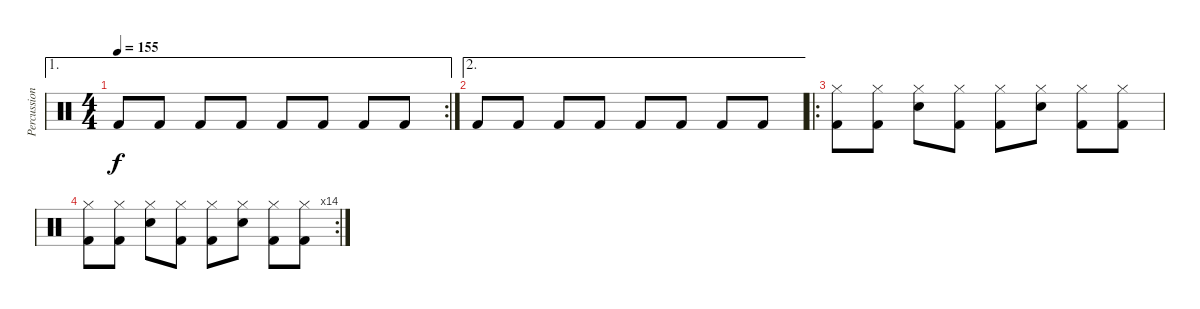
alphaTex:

\track ("Percussion" "Percussion") {instrument percussion}
\staff {score}
\articulation defaults
\ae 1
\rc 2
\ts (4 4)
\tempo 155
\clef neutral
\ks c "Kick (hit) 2".8{dy f} "Kick (hit) 2".8 "Kick (hit) 2".8 "Kick (hit) 2".8 "Kick (hit) 2".8 "Kick (hit) 2".8 "Kick (hit) 2".8 "Kick (hit) 2".8
|
\ae 2 "Kick (hit) 2".8 "Kick (hit) 2".8 "Kick (hit) 2".8 "Kick (hit) 2".8 "Kick (hit) 2".8 "Kick (hit) 2".8 "Kick (hit) 2".8 "Kick (hit) 2".8
|
\ro
("Hi-Hat (closed)" "Kick (hit) 2").8 ("Hi-Hat (closed)" "Kick (hit) 2").8 ("Hi-Hat (closed)" "Electric Snare (hit)").8 ("Hi-Hat (closed)" "Kick (hit) 2").8 ("Hi-Hat (closed)" "Kick (hit) 2").8 ("Hi-Hat (closed)" "Electric Snare (hit)").8 ("Hi-Hat (closed)" "Kick (hit) 2").8 ("Hi-Hat (closed)" "Kick (hit) 2").8 |
\rc 14
("Hi-Hat (closed)" "Kick (hit) 2").8 ("Hi-Hat (closed)" "Kick (hit) 2").8 ("Hi-Hat (closed)" "Electric Snare (hit)").8 ("Hi-Hat (closed)" "Kick (hit) 2").8 ("Hi-Hat (closed)" "Kick (hit) 2").8 ("Hi-Hat (closed)" "Electric Snare (hit)").8 ("Hi-Hat (closed)" "Kick (hit) 2").8 ("Hi-Hat (closed)" "Kick (hit) 2").8
